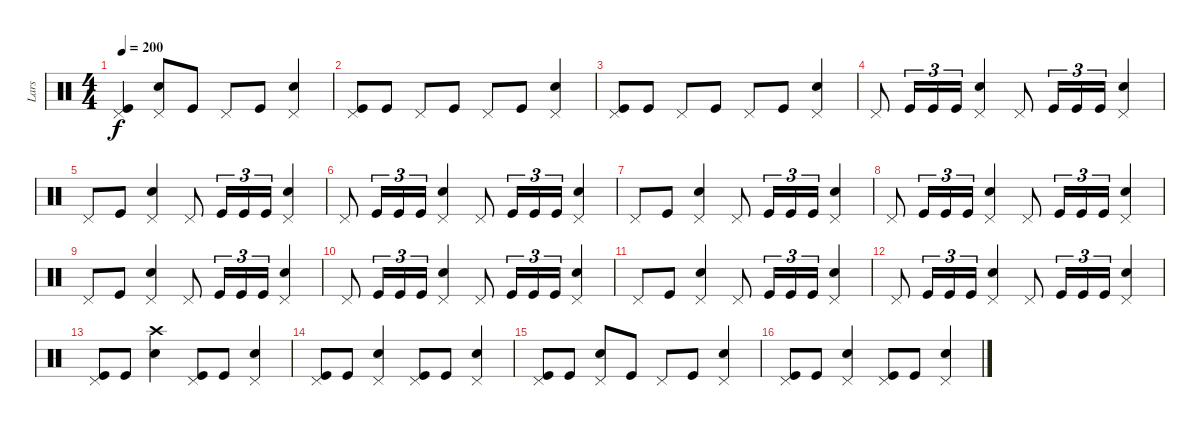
\track ("Lars" "Lars") {instrument percussion}
\staff {score}
\articulation defaults
\ts (4 4)
\tempo 200
\clef neutral
\ks c
("Pedal Hi-Hat (hit)" "Kick (hit)").4{dy f} ("Pedal Hi-Hat (hit)" "Snare (hit) 2").8 "Kick (hit)".8 "Pedal Hi-Hat (hit)".8 "Kick (hit)".8 ("Pedal Hi-Hat (hit)" "Snare (hit) 2").4 |
("Pedal Hi-Hat (hit)" "Kick (hit)").8 "Kick (hit)".8 "Pedal Hi-Hat (hit)".8 "Kick (hit)".8 "Pedal Hi-Hat (hit)".8 "Kick (hit)".8 ("Pedal Hi-Hat (hit)" "Snare (hit) 2").4 |
("Pedal Hi-Hat (hit)" "Kick (hit)").8 "Kick (hit)".8 "Pedal Hi-Hat (hit)".8 "Kick (hit)".8 "Pedal Hi-Hat (hit)".8 "Kick (hit)".8 ("Pedal Hi-Hat (hit)" "Snare (hit) 2").4 |
"Pedal Hi-Hat (hit)".8 "Kick (hit)".16{tu (3 2)} "Kick (hit)".16{tu (3 2)} "Kick (hit)".16{tu (3 2)} ("Pedal Hi-Hat (hit)" "Snare (hit) 2").4 "Pedal Hi-Hat (hit)".8 "Kick (hit)".16{tu (3 2)} "Kick (hit)".16{tu (3 2)} "Kick (hit)".16{tu (3 2)} ("Pedal Hi-Hat (hit)" "Snare (hit) 2").4 |
"Pedal Hi-Hat (hit)".8 "Kick (hit)".8 ("Pedal Hi-Hat (hit)" "Snare (hit) 2").4 "Pedal Hi-Hat (hit)".8 "Kick (hit)".16{tu (3 2)} "Kick (hit)".16{tu (3 2)} "Kick (hit)".16{tu (3 2)} ("Pedal Hi-Hat (hit)" "Snare (hit) 2").4 |
"Pedal Hi-Hat (hit)".8 "Kick (hit)".16{tu (3 2)} "Kick (hit)".16{tu (3 2)} "Kick (hit)".16{tu (3 2)} ("Pedal Hi-Hat (hit)" "Snare (hit) 2").4 "Pedal Hi-Hat (hit)".8 "Kick (hit)".16{tu (3 2)} "Kick (hit)".16{tu (3 2)} "Kick (hit)".16{tu (3 2)} ("Pedal Hi-Hat (hit)" "Snare (hit) 2").4 |
"Pedal Hi-Hat (hit)".8 "Kick (hit)".8 ("Pedal Hi-Hat (hit)" "Snare (hit) 2").4 "Pedal Hi-Hat (hit)".8 "Kick (hit)".16{tu (3 2)} "Kick (hit)".16{tu (3 2)} "Kick (hit)".16{tu (3 2)} ("Pedal Hi-Hat (hit)" "Snare (hit) 2").4 |
"Pedal Hi-Hat (hit)".8 "Kick (hit)".16{tu (3 2)} "Kick (hit)".16{tu (3 2)} "Kick (hit)".16{tu (3 2)} ("Pedal Hi-Hat (hit)" "Snare (hit) 2").4 "Pedal Hi-Hat (hit)".8 "Kick (hit)".16{tu (3 2)} "Kick (hit)".16{tu (3 2)} "Kick (hit)".16{tu (3 2)} ("Pedal Hi-Hat (hit)" "Snare (hit) 2").4 |
"Pedal Hi-Hat (hit)".8 "Kick (hit)".8 ("Pedal Hi-Hat (hit)" "Snare (hit) 2").4 "Pedal Hi-Hat (hit)".8 "Kick (hit)".16{tu (3 2)} "Kick (hit)".16{tu (3 2)} "Kick (hit)".16{tu (3 2)} ("Pedal Hi-Hat (hit)" "Snare (hit) 2").4 |
"Pedal Hi-Hat (hit)".8 "Kick (hit)".16{tu (3 2)} "Kick (hit)".16{tu (3 2)} "Kick (hit)".16{tu (3 2)} ("Pedal Hi-Hat (hit)" "Snare (hit) 2").4 "Pedal Hi-Hat (hit)".8 "Kick (hit)".16{tu (3 2)} "Kick (hit)".16{tu (3 2)} "Kick (hit)".16{tu (3 2)} ("Pedal Hi-Hat (hit)" "Snare (hit) 2").4 |
"Pedal Hi-Hat (hit)".8 "Kick (hit)".8 ("Pedal Hi-Hat (hit)" "Snare (hit) 2").4 "Pedal Hi-Hat (hit)".8 "Kick (hit)".16{tu (3 2)} "Kick (hit)".16{tu (3 2)} "Kick (hit)".16{tu (3 2)} ("Pedal Hi-Hat (hit)" "Snare (hit) 2").4 |
"Pedal Hi-Hat (hit)".8 "Kick (hit)".16{tu (3 2)} "Kick (hit)".16{tu (3 2)} "Kick (hit)".16{tu (3 2)} ("Pedal Hi-Hat (hit)" "Snare (hit) 2").4 "Pedal Hi-Hat (hit)".8 "Kick (hit)".16{tu (3 2)} "Kick (hit)".16{tu (3 2)} "Kick (hit)".16{tu (3 2)} ("Pedal Hi-Hat (hit)" "Snare (hit) 2").4 |
("Pedal Hi-Hat (hit)" "Kick (hit)").8 "Kick (hit)".8 ("Crash high (hit)" "Snare (hit) 2").4 ("Pedal Hi-Hat (hit)" "Kick (hit)").8 "Kick (hit)".8 ("Pedal Hi-Hat (hit)" "Snare (hit) 2").4 |
("Pedal Hi-Hat (hit)" "Kick (hit)").8 "Kick (hit)".8 ("Pedal Hi-Hat (hit)" "Snare (hit) 2").4 ("Pedal Hi-Hat (hit)" "Kick (hit)").8 "Kick (hit)".8 ("Pedal Hi-Hat (hit)" "Snare (hit) 2").4 |
("Pedal Hi-Hat (hit)" "Kick (hit)").8 "Kick (hit)".8 ("Pedal Hi-Hat (hit)" "Snare (hit) 2").8 "Kick (hit)".8 "Pedal Hi-Hat (hit)".8 "Kick (hit)".8 ("Pedal Hi-Hat (hit)" "Snare (hit) 2").4 |
("Pedal Hi-Hat (hit)" "Kick (hit)").8 "Kick (hit)".8 ("Pedal Hi-Hat (hit)" "Snare (hit) 2").4 ("Pedal Hi-Hat (hit)" "Kick (hit)").8 "Kick (hit)".8 ("Pedal Hi-Hat (hit)" "Snare (hit) 2").4
